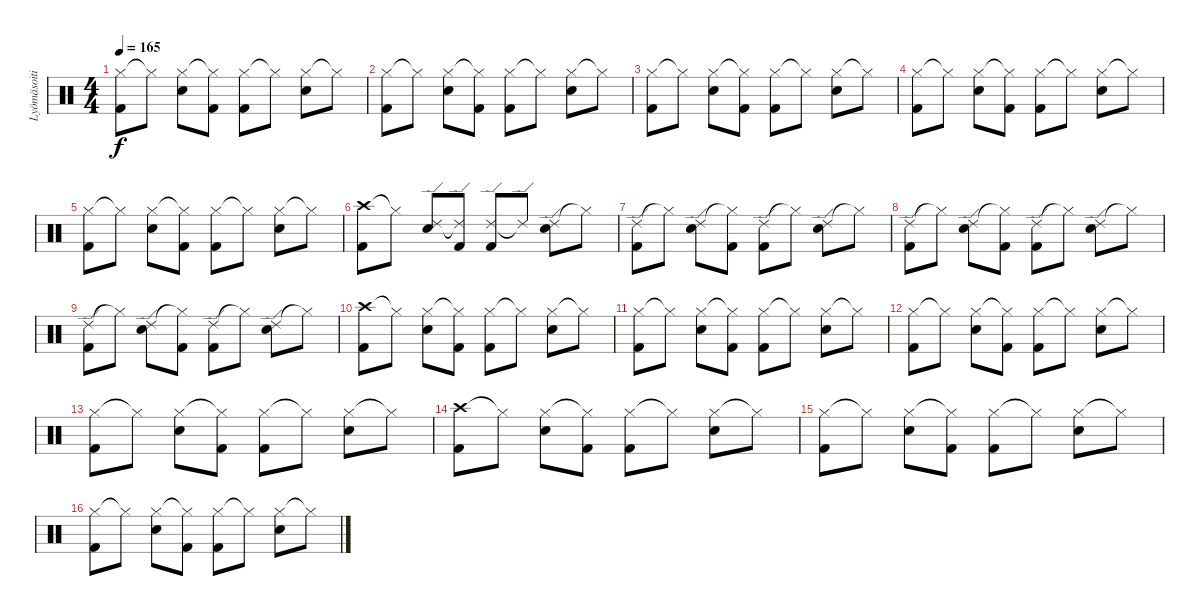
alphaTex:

\track ("Lyömäsoitin" "Lyömäsoiti") {instrument percussion}
\staff {score}
\articulation defaults
\ts (4 4)
\tempo 165
\clef neutral
\ks c
("Hi-Hat (closed)" "Kick (hit) 2").8{dy f} "Hi-Hat (closed)"{t}.8 ("Hi-Hat (closed)" "Snare (hit) 2").8 ("Hi-Hat (closed)"{t} "Kick (hit) 2").8 ("Hi-Hat (closed)" "Kick (hit) 2").8 "Hi-Hat (closed)"{t}.8 ("Hi-Hat (closed)" "Snare (hit) 2").8 "Hi-Hat (closed)"{t}.8 |
("Hi-Hat (closed)" "Kick (hit) 2").8 "Hi-Hat (closed)"{t}.8 ("Hi-Hat (closed)" "Snare (hit) 2").8 ("Hi-Hat (closed)"{t} "Kick (hit) 2").8 ("Hi-Hat (closed)" "Kick (hit) 2").8 "Hi-Hat (closed)"{t}.8 ("Hi-Hat (closed)" "Snare (hit) 2").8 "Hi-Hat (closed)"{t}.8 |
("Hi-Hat (closed)" "Kick (hit) 2").8 "Hi-Hat (closed)"{t}.8 ("Hi-Hat (closed)" "Snare (hit) 2").8 ("Hi-Hat (closed)"{t} "Kick (hit) 2").8 ("Hi-Hat (closed)" "Kick (hit) 2").8 "Hi-Hat (closed)"{t}.8 ("Hi-Hat (closed)" "Snare (hit) 2").8 "Hi-Hat (closed)"{t}.8 |
("Hi-Hat (closed)" "Kick (hit) 2").8 "Hi-Hat (closed)"{t}.8 ("Hi-Hat (closed)" "Snare (hit) 2").8 ("Hi-Hat (closed)"{t} "Kick (hit) 2").8 ("Hi-Hat (closed)" "Kick (hit) 2").8 "Hi-Hat (closed)"{t}.8 ("Hi-Hat (closed)" "Snare (hit) 2").8 "Hi-Hat (closed)"{t}.8 |
("Hi-Hat (closed)" "Kick (hit) 2").8 "Hi-Hat (closed)"{t}.8 ("Hi-Hat (closed)" "Snare (hit) 2").8 ("Hi-Hat (closed)"{t} "Kick (hit) 2").8 ("Hi-Hat (closed)" "Kick (hit) 2").8 "Hi-Hat (closed)"{t}.8 ("Hi-Hat (closed)" "Snare (hit) 2").8 "Hi-Hat (closed)"{t}.8 |
("Crash high (hit)" "Kick (hit) 2").8 "Hi-Hat (closed)"{t}.8 ("Ride (edge) 2" "Snare (hit) 2").8 ("Ride (edge) 2"{t} "Kick (hit) 2").8 ("Ride (edge) 2" "Kick (hit) 2").8 "Ride (edge) 2"{t}.8 ("Ride (edge) 2" "Snare (hit) 2").8 "Hi-Hat (closed)"{t}.8 |
("Ride (edge) 2" "Kick (hit) 2").8 "Hi-Hat (closed)"{t}.8 ("Ride (edge) 2" "Snare (hit) 2").8 ("Hi-Hat (closed)"{t} "Kick (hit) 2").8 ("Ride (edge) 2" "Kick (hit) 2").8 "Hi-Hat (closed)"{t}.8 ("Ride (edge) 2" "Snare (hit) 2").8 "Hi-Hat (closed)"{t}.8 |
("Ride (edge) 2" "Kick (hit) 2").8 "Hi-Hat (closed)"{t}.8 ("Ride (edge) 2" "Snare (hit) 2").8 ("Hi-Hat (closed)"{t} "Kick (hit) 2").8 ("Ride (edge) 2" "Kick (hit) 2").8 "Hi-Hat (closed)"{t}.8 ("Ride (edge) 2" "Snare (hit) 2").8 "Hi-Hat (closed)"{t}.8 |
("Ride (edge) 2" "Kick (hit) 2").8 "Hi-Hat (closed)"{t}.8 ("Ride (edge) 2" "Snare (hit) 2").8 ("Hi-Hat (closed)"{t} "Kick (hit) 2").8 ("Ride (edge) 2" "Kick (hit) 2").8 "Hi-Hat (closed)"{t}.8 ("Ride (edge) 2" "Snare (hit) 2").8 "Hi-Hat (closed)"{t}.8 |
("Crash high (hit)" "Kick (hit) 2").8 "Hi-Hat (closed)"{t}.8 ("Hi-Hat (closed)" "Snare (hit) 2").8 ("Hi-Hat (closed)"{t} "Kick (hit) 2").8 ("Hi-Hat (closed)" "Kick (hit) 2").8 "Hi-Hat (closed)"{t}.8 ("Hi-Hat (closed)" "Snare (hit) 2").8 "Hi-Hat (closed)"{t}.8 |
("Hi-Hat (closed)" "Kick (hit) 2").8 "Hi-Hat (closed)"{t}.8 ("Hi-Hat (closed)" "Snare (hit) 2").8 ("Hi-Hat (closed)"{t} "Kick (hit) 2").8 ("Hi-Hat (closed)" "Kick (hit) 2").8 "Hi-Hat (closed)"{t}.8 ("Hi-Hat (closed)" "Snare (hit) 2").8 "Hi-Hat (closed)"{t}.8 |
("Hi-Hat (closed)" "Kick (hit) 2").8 "Hi-Hat (closed)"{t}.8 ("Hi-Hat (closed)" "Snare (hit) 2").8 ("Hi-Hat (closed)"{t} "Kick (hit) 2").8 ("Hi-Hat (closed)" "Kick (hit) 2").8 "Hi-Hat (closed)"{t}.8 ("Hi-Hat (closed)" "Snare (hit) 2").8 "Hi-Hat (closed)"{t}.8 |
("Hi-Hat (closed)" "Kick (hit) 2").8 "Hi-Hat (closed)"{t}.8 ("Hi-Hat (closed)" "Snare (hit) 2").8 ("Hi-Hat (closed)"{t} "Kick (hit) 2").8 ("Hi-Hat (closed)" "Kick (hit) 2").8 "Hi-Hat (closed)"{t}.8 ("Hi-Hat (closed)" "Snare (hit) 2").8 "Hi-Hat (closed)"{t}.8 |
("Crash high (hit)" "Kick (hit) 2").8 "Hi-Hat (closed)"{t}.8 ("Hi-Hat (closed)" "Snare (hit) 2").8 ("Hi-Hat (closed)"{t} "Kick (hit) 2").8 ("Hi-Hat (closed)" "Kick (hit) 2").8 "Hi-Hat (closed)"{t}.8 ("Hi-Hat (closed)" "Snare (hit) 2").8 "Hi-Hat (closed)"{t}.8 |
("Hi-Hat (closed)" "Kick (hit) 2").8 "Hi-Hat (closed)"{t}.8 ("Hi-Hat (closed)" "Snare (hit) 2").8 ("Hi-Hat (closed)"{t} "Kick (hit) 2").8 ("Hi-Hat (closed)" "Kick (hit) 2").8 "Hi-Hat (closed)"{t}.8 ("Hi-Hat (closed)" "Snare (hit) 2").8 "Hi-Hat (closed)"{t}.8 |
("Hi-Hat (closed)" "Kick (hit) 2").8 "Hi-Hat (closed)"{t}.8 ("Hi-Hat (closed)" "Snare (hit) 2").8 ("Hi-Hat (closed)"{t} "Kick (hit) 2").8 ("Hi-Hat (closed)" "Kick (hit) 2").8 "Hi-Hat (closed)"{t}.8 ("Hi-Hat (closed)" "Snare (hit) 2").8 "Hi-Hat (closed)"{t}.8
